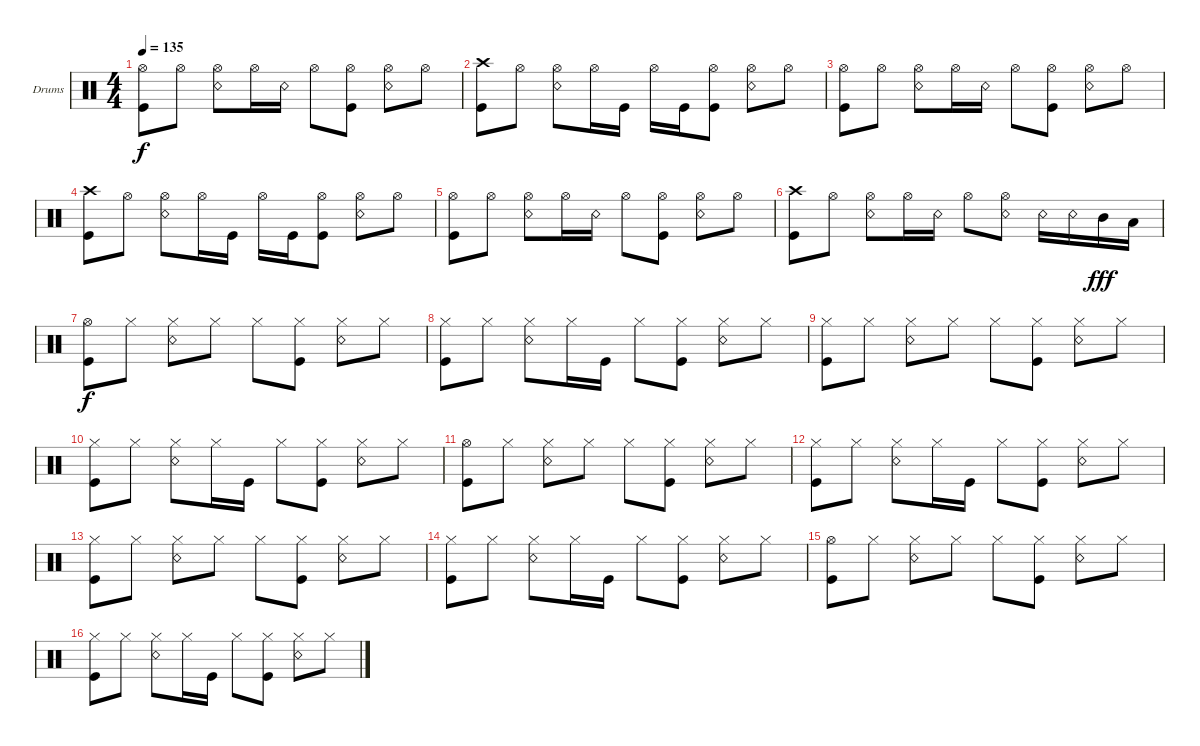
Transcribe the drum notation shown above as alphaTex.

\defaultSystemsLayout 4
\bracketExtendMode groupsimilarinstruments
\firstSystemTrackNameOrientation horizontal
\otherSystemsTrackNameOrientation horizontal
\track ("Drumkit" "Drums") {instrument percussion}
\staff {score}
\articulation defaults
\ts (4 4)
\tempo 135
\clef neutral
\scale
0.333333
\ks c
("Kick (hit)" "Hi-Hat (open)").8{dy f} "Hi-Hat (open)".8 ("Snare (rim shot)" "Hi-Hat (open)").8 "Hi-Hat (open)".16 "Snare (rim shot)".16 "Hi-Hat (open)".8 ("Hi-Hat (open)" "Kick (hit)").8 ("Snare (rim shot)" "Hi-Hat (open)").8 "Hi-Hat (open)".8 |
\scale
0.333333 ("Kick (hit)" "Crash high (hit)").8 "Hi-Hat (open)".8 ("Snare (rim shot)" "Hi-Hat (open)").8 "Hi-Hat (open)".16 "Kick (hit)".16 "Hi-Hat (open)".16 "Kick (hit)".16 ("Kick (hit)" "Hi-Hat (open)").8 ("Snare (rim shot)" "Hi-Hat (open)").8 "Hi-Hat (open)".8 |
\scale
0.333333 ("Kick (hit)" "Hi-Hat (open)").8 "Hi-Hat (open)".8 ("Snare (rim shot)" "Hi-Hat (open)").8 "Hi-Hat (open)".16 "Snare (rim shot)".16 "Hi-Hat (open)".8 ("Hi-Hat (open)" "Kick (hit)").8 ("Snare (rim shot)" "Hi-Hat (open)").8 "Hi-Hat (open)".8 |
\scale
0.333333 ("Kick (hit)" "Crash high (hit)").8 "Hi-Hat (open)".8 ("Snare (rim shot)" "Hi-Hat (open)").8 "Hi-Hat (open)".16 "Kick (hit)".16 "Hi-Hat (open)".16 "Kick (hit)".16 ("Kick (hit)" "Hi-Hat (open)").8 ("Snare (rim shot)" "Hi-Hat (open)").8 "Hi-Hat (open)".8 |
\scale
0.333333 ("Kick (hit)" "Hi-Hat (open)").8 "Hi-Hat (open)".8 ("Snare (rim shot)" "Hi-Hat (open)").8 "Hi-Hat (open)".16 "Snare (rim shot)".16 "Hi-Hat (open)".8 ("Hi-Hat (open)" "Kick (hit)").8 ("Snare (rim shot)" "Hi-Hat (open)").8 "Hi-Hat (open)".8 |
\scale
0.333333 ("Kick (hit)" "Crash high (hit)").8 "Hi-Hat (open)".8 ("Snare (rim shot)" "Hi-Hat (open)").8 "Hi-Hat (open)".16 "Snare (rim shot)".16 "Hi-Hat (open)".8 ("Hi-Hat (open)" "Snare (rim shot)").8 "Snare (rim shot)".16 "Snare (rim shot)".16 "Mid Tom (hit)".16{dy fff} "Low Tom (hit)".16 |
\scale
0.333333 ("Kick (hit)" "Hi-Hat (open)").8{dy f} "Hi-Hat (closed)".8 ("Hi-Hat (closed)" "Snare (rim shot)").8 "Hi-Hat (closed)".8 "Hi-Hat (closed)".8 ("Hi-Hat (closed)" "Kick (hit)").8 ("Hi-Hat (closed)" "Snare (rim shot)").8 "Hi-Hat (closed)".8 |
\scale
0.333333 ("Hi-Hat (closed)" "Kick (hit)").8 "Hi-Hat (closed)".8 ("Hi-Hat (closed)" "Snare (rim shot)").8 "Hi-Hat (closed)".16 "Kick (hit)".16 "Hi-Hat (closed)".8 ("Kick (hit)" "Hi-Hat (closed)").8 ("Snare (rim shot)" "Hi-Hat (closed)").8 "Hi-Hat (closed)".8 |
\scale
0.333333 ("Kick (hit)" "Hi-Hat (closed)").8 "Hi-Hat (closed)".8 ("Hi-Hat (closed)" "Snare (rim shot)").8 "Hi-Hat (closed)".8 "Hi-Hat (closed)".8 ("Hi-Hat (closed)" "Kick (hit)").8 ("Hi-Hat (closed)" "Snare (rim shot)").8 "Hi-Hat (closed)".8 |
\scale
0.333333 ("Hi-Hat (closed)" "Kick (hit)").8 "Hi-Hat (closed)".8 ("Hi-Hat (closed)" "Snare (rim shot)").8 "Hi-Hat (closed)".16 "Kick (hit)".16 "Hi-Hat (closed)".8 ("Kick (hit)" "Hi-Hat (closed)").8 ("Snare (rim shot)" "Hi-Hat (closed)").8 "Hi-Hat (closed)".8 |
\scale
0.333333 ("Kick (hit)" "Hi-Hat (open)").8 "Hi-Hat (closed)".8 ("Hi-Hat (closed)" "Snare (rim shot)").8 "Hi-Hat (closed)".8 "Hi-Hat (closed)".8 ("Hi-Hat (closed)" "Kick (hit)").8 ("Hi-Hat (closed)" "Snare (rim shot)").8 "Hi-Hat (closed)".8 |
\scale
0.333333 ("Hi-Hat (closed)" "Kick (hit)").8 "Hi-Hat (closed)".8 ("Hi-Hat (closed)" "Snare (rim shot)").8 "Hi-Hat (closed)".16 "Kick (hit)".16 "Hi-Hat (closed)".8 ("Kick (hit)" "Hi-Hat (closed)").8 ("Snare (rim shot)" "Hi-Hat (closed)").8 "Hi-Hat (closed)".8 |
\scale
0.333333 ("Kick (hit)" "Hi-Hat (closed)").8 "Hi-Hat (closed)".8 ("Hi-Hat (closed)" "Snare (rim shot)").8 "Hi-Hat (closed)".8 "Hi-Hat (closed)".8 ("Hi-Hat (closed)" "Kick (hit)").8 ("Hi-Hat (closed)" "Snare (rim shot)").8 "Hi-Hat (closed)".8 |
\scale
0.333333 ("Hi-Hat (closed)" "Kick (hit)").8 "Hi-Hat (closed)".8 ("Hi-Hat (closed)" "Snare (rim shot)").8 "Hi-Hat (closed)".16 "Kick (hit)".16 "Hi-Hat (closed)".8 ("Kick (hit)" "Hi-Hat (closed)").8 ("Snare (rim shot)" "Hi-Hat (closed)").8 "Hi-Hat (closed)".8 |
\scale
0.333333 ("Kick (hit)" "Hi-Hat (open)").8 "Hi-Hat (closed)".8 ("Hi-Hat (closed)" "Snare (rim shot)").8 "Hi-Hat (closed)".8 "Hi-Hat (closed)".8 ("Hi-Hat (closed)" "Kick (hit)").8 ("Hi-Hat (closed)" "Snare (rim shot)").8 "Hi-Hat (closed)".8 |
\scale
0.333333 ("Hi-Hat (closed)" "Kick (hit)").8 "Hi-Hat (closed)".8 ("Hi-Hat (closed)" "Snare (rim shot)").8 "Hi-Hat (closed)".16 "Kick (hit)".16 "Hi-Hat (closed)".8 ("Kick (hit)" "Hi-Hat (closed)").8 ("Snare (rim shot)" "Hi-Hat (closed)").8 "Hi-Hat (closed)".8
